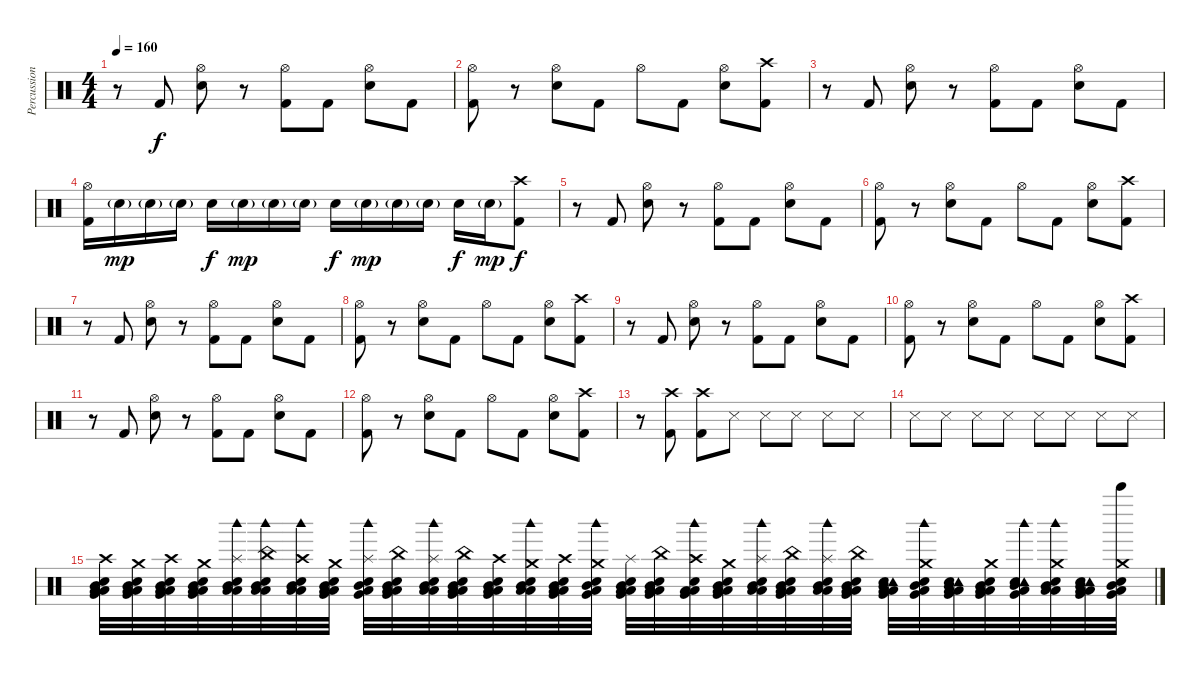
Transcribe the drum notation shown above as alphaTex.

\track ("Percussion" "Percussion") {instrument percussion}
\staff {score}
\articulation defaults
\ts (4 4)
\tempo 160
\clef neutral
\ks c
r.8{dy f} "Kick (hit) 2".8 ("Hi-Hat (open)" "Electric Snare (hit)").8 r.8 ("Hi-Hat (open)" "Kick (hit) 2").8 "Kick (hit) 2".8 ("Hi-Hat (open)" "Electric Snare (hit)").8 "Kick (hit) 2".8 |
("Hi-Hat (open)" "Kick (hit) 2").8 r.8 ("Hi-Hat (open)" "Electric Snare (hit)").8 "Kick (hit) 2".8 "Hi-Hat (open)".8 "Kick (hit) 2".8 ("Hi-Hat (open)" "Electric Snare (hit)").8 ("Crash high (hit)" "Kick (hit) 2").8 |
r.8 "Kick (hit) 2".8 ("Hi-Hat (open)" "Electric Snare (hit)").8 r.8 ("Hi-Hat (open)" "Kick (hit) 2").8 "Kick (hit) 2".8 ("Hi-Hat (open)" "Electric Snare (hit)").8 "Kick (hit) 2".8 |
("Hi-Hat (open)" "Kick (hit) 2").16 "Electric Snare (hit)"{g}.16{dy mp} "Electric Snare (hit)"{g}.16 "Electric Snare (hit)"{g}.16 "Electric Snare (hit)".16{dy f} "Electric Snare (hit)"{g}.16{dy mp} "Electric Snare (hit)"{g}.16 "Electric Snare (hit)"{g}.16 "Electric Snare (hit)".16{dy f} "Electric Snare (hit)"{g}.16{dy mp} "Electric Snare (hit)"{g}.16 "Electric Snare (hit)"{g}.16 "Electric Snare (hit)".16{dy f} "Electric Snare (hit)"{g}.16{dy mp} ("Crash high (hit)" "Kick (hit) 2").8{dy f} |
r.8 "Kick (hit) 2".8 ("Hi-Hat (open)" "Electric Snare (hit)").8 r.8 ("Hi-Hat (open)" "Kick (hit) 2").8 "Kick (hit) 2".8 ("Hi-Hat (open)" "Electric Snare (hit)").8 "Kick (hit) 2".8 |
("Hi-Hat (open)" "Kick (hit) 2").8 r.8 ("Hi-Hat (open)" "Electric Snare (hit)").8 "Kick (hit) 2".8 "Hi-Hat (open)".8 "Kick (hit) 2".8 ("Hi-Hat (open)" "Electric Snare (hit)").8 ("Crash high (hit)" "Kick (hit) 2").8 |
r.8 "Kick (hit) 2".8 ("Hi-Hat (open)" "Electric Snare (hit)").8 r.8 ("Hi-Hat (open)" "Kick (hit) 2").8 "Kick (hit) 2".8 ("Hi-Hat (open)" "Electric Snare (hit)").8 "Kick (hit) 2".8 |
("Hi-Hat (open)" "Kick (hit) 2").8 r.8 ("Hi-Hat (open)" "Electric Snare (hit)").8 "Kick (hit) 2".8 "Hi-Hat (open)".8 "Kick (hit) 2".8 ("Hi-Hat (open)" "Electric Snare (hit)").8 ("Crash high (hit)" "Kick (hit) 2").8 |
r.8 "Kick (hit) 2".8 ("Hi-Hat (open)" "Electric Snare (hit)").8 r.8 ("Hi-Hat (open)" "Kick (hit) 2").8 "Kick (hit) 2".8 ("Hi-Hat (open)" "Electric Snare (hit)").8 "Kick (hit) 2".8 |
("Hi-Hat (open)" "Kick (hit) 2").8 r.8 ("Hi-Hat (open)" "Electric Snare (hit)").8 "Kick (hit) 2".8 "Hi-Hat (open)".8 "Kick (hit) 2".8 ("Hi-Hat (open)" "Electric Snare (hit)").8 ("Crash high (hit)" "Kick (hit) 2").8 |
r.8 "Kick (hit) 2".8 ("Hi-Hat (open)" "Electric Snare (hit)").8 r.8 ("Hi-Hat (open)" "Kick (hit) 2").8 "Kick (hit) 2".8 ("Hi-Hat (open)" "Electric Snare (hit)").8 "Kick (hit) 2".8 |
("Hi-Hat (open)" "Kick (hit) 2").8 r.8 ("Hi-Hat (open)" "Electric Snare (hit)").8 "Kick (hit) 2".8 "Hi-Hat (open)".8 "Kick (hit) 2".8 ("Hi-Hat (open)" "Electric Snare (hit)").8 ("Crash high (hit)" "Kick (hit) 2").8 |
r.8 ("Crash high (hit)" "Kick (hit) 2").8 ("Crash high (hit)" "Kick (hit) 2").8 "Metronome (hit)".8 "Metronome (hit)".8 "Metronome (hit)".8 "Metronome (hit)".8 "Metronome (hit)".8 |
"Metronome (hit)".8 "Metronome (hit)".8 "Metronome (hit)".8 "Metronome (hit)".8 "Metronome (hit)".8 "Metronome (hit)".8 "Metronome (hit)".8 "Metronome (hit)".8 |
("Crash high (hit)" "Electric Snare (hit)" "Low Floor Tom (hit)" "Very Low Tom (hit)" "Mid Tom (hit)" "Low Tom (hit)").32 ("Crash medium (hit)" "Electric Snare (hit)" "Low Floor Tom (hit)" "Very Low Tom (hit)" "Mid Tom (hit)" "Low Tom (hit)").32 ("Crash high (hit)" "Electric Snare (hit)" "Low Floor Tom (hit)" "Very Low Tom (hit)" "Mid Tom (hit)" "Low Tom (hit)").32 ("Crash medium (hit)" "Electric Snare (hit)" "Low Floor Tom (hit)" "Very Low Tom (hit)" "Mid Tom (hit)" "Low Tom (hit)").32 ("Splash (hit)" "Electric Snare (hit)" "Low Floor Tom (hit)" "Woodblock high (hit)" "Mid Tom (hit)" "Low Tom (hit)").32 ("China (hit)" "Electric Snare (hit)" "Low Floor Tom (hit)" "Woodblock high (hit)" "Mid Tom (hit)" "Low Tom (hit)").32 ("Crash high (hit)" "Electric Snare (hit)" "Low Floor Tom (hit)" "Woodblock high (hit)" "Mid Tom (hit)" "Low Tom (hit)").32 ("Crash medium (hit)" "Electric Snare (hit)" "Low Floor Tom (hit)" "Very Low Tom (hit)" "Mid Tom (hit)" "Low Tom (hit)").32 ("Splash (hit)" "Electric Snare (hit)" "Woodblock high (hit)" "Very Low Tom (hit)" "Mid Tom (hit)" "Low Tom (hit)").32 ("China (hit)" "Electric Snare (hit)" "Low Floor Tom (hit)" "Very Low Tom (hit)" "Mid Tom (hit)" "Low Tom (hit)").32 ("Splash (hit)" "Electric Snare (hit)" "Low Floor Tom (hit)" "Woodblock high (hit)" "Mid Tom (hit)" "Low Tom (hit)").32 ("China (hit)" "Electric Snare (hit)" "Low Floor Tom (hit)" "Very Low Tom (hit)" "Mid Tom (hit)" "Low Tom (hit)").32 ("Crash high (hit)" "Electric Snare (hit)" "Low Floor Tom (hit)" "Very Low Tom (hit)" "Mid Tom (hit)" "Low Tom (hit)").32 ("Crash medium (hit)" "Electric Snare (hit)" "Low Floor Tom (hit)" "Woodblock high (hit)" "Mid Tom (hit)" "Low Tom (hit)").32 ("Crash high (hit)" "Electric Snare (hit)" "Low Floor Tom (hit)" "Very Low Tom (hit)" "Mid Tom (hit)" "Low Tom (hit)").32 ("Crash medium (hit)" "Electric Snare (hit)" "Woodblock high (hit)" "Very Low Tom (hit)" "Mid Tom (hit)" "Low Tom (hit)").32 ("Splash (hit)" "Electric Snare (hit)" "Low Floor Tom (hit)" "Very Low Tom (hit)" "Mid Tom (hit)" "Low Tom (hit)").32 ("China (hit)" "Electric Snare (hit)" "Low Floor Tom (hit)" "Very Low Tom (hit)" "Mid Tom (hit)" "Low Tom (hit)").32 ("Crash high (hit)" "Electric Snare (hit)" "Low Floor Tom (hit)" "Very Low Tom (hit)" "Woodblock high (hit)" "Low Tom (hit)").32 ("Crash medium (hit)" "Electric Snare (hit)" "Low Floor Tom (hit)" "Very Low Tom (hit)" "Mid Tom (hit)" "Low Tom (hit)").32 ("Splash (hit)" "Electric Snare (hit)" "Low Floor Tom (hit)" "Woodblock high (hit)" "Mid Tom (hit)" "Low Tom (hit)").32 ("China (hit)" "Electric Snare (hit)" "Low Floor Tom (hit)" "Very Low Tom (hit)" "Mid Tom (hit)" "Low Tom (hit)").32 ("Splash (hit)" "Electric Snare (hit)" "Low Floor Tom (hit)" "Woodblock high (hit)" "Mid Tom (hit)" "Low Tom (hit)").32 ("China (hit)" "Electric Snare (hit)" "Low Floor Tom (hit)" "Very Low Tom (hit)" "Mid Tom (hit)" "Low Tom (hit)").32 ("Tambourine (hit)" "Electric Snare (hit)" "Low Floor Tom (hit)" "Very Low Tom (hit)" "Mid Tom (hit)" "Low Tom (hit)").32 ("Crash medium (hit)" "Electric Snare (hit)" "Woodblock high (hit)" "Very Low Tom (hit)" "Mid Tom (hit)" "Low Tom (hit)").32 ("Tambourine (hit)" "Electric Snare (hit)" "Low Floor Tom (hit)" "Very Low Tom (hit)" "Mid Tom (hit)" "Low Tom (hit)").32 ("Crash medium (hit)" "Electric Snare (hit)" "Low Floor Tom (hit)" "Very Low Tom (hit)" "Mid Tom (hit)" "Low Tom (hit)").32 ("Tambourine (hit)" "Electric Snare (hit)" "Woodblock high (hit)" "Very Low Tom (hit)" "Mid Tom (hit)" "Low Tom (hit)").32 ("Crash medium (hit)" "Electric Snare (hit)" "Low Floor Tom (hit)" "Woodblock high (hit)" "Mid Tom (hit)" "Low Tom (hit)").32 ("Tambourine (hit)" "Electric Snare (hit)" "Low Floor Tom (hit)" "Very Low Tom (hit)" "Mid Tom (hit)" "Low Tom (hit)").32 ("Crash medium (hit)" "Electric Snare (hit)" "Bell Tree (hit)" "Very Low Tom (hit)" "Mid Tom (hit)" "Low Tom (hit)").32
